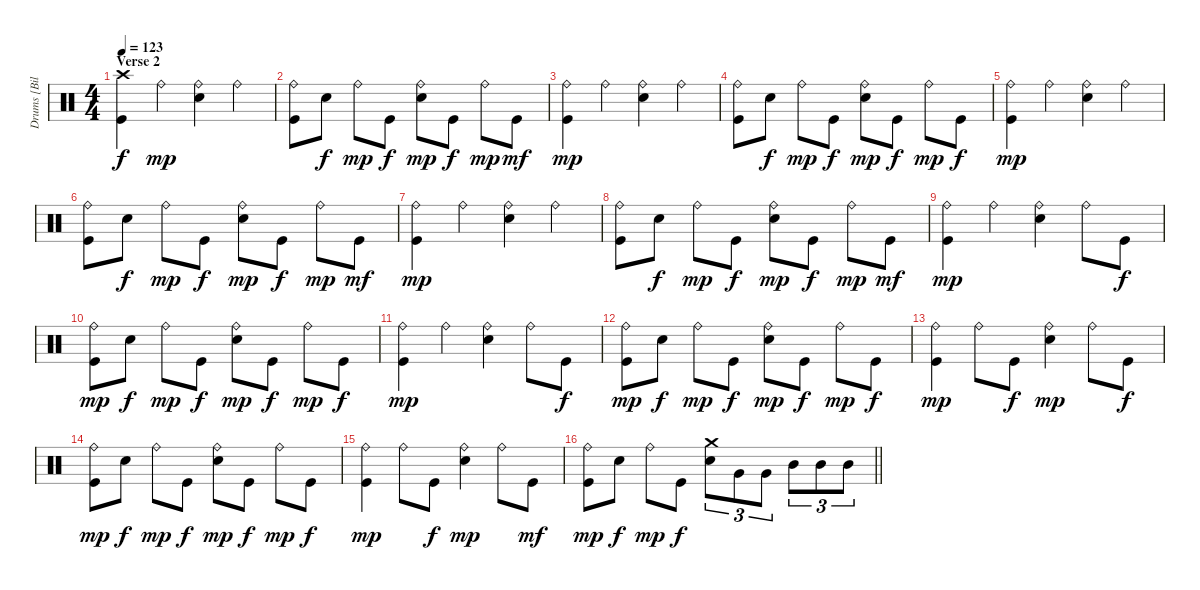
\track ("Drums [Bill Ward]" "Drums [Bil") {instrument percussion}
\staff {score}
\articulation defaults
\ts (4 4)
\section ("" "Verse 2")
\tempo 123
\clef neutral
\ks c
("Crash high (hit)" "Kick (hit)").4{dy f} "Ride (bell)".4{dy mp} ("Ride (bell)" "Electric Snare (hit)").4 "Ride (bell)".4 |
("Ride (bell)" "Kick (hit)").8 "Electric Snare (hit)".8{dy f} "Ride (bell)".8{dy mp} "Kick (hit)".8{dy f} ("Ride (bell)" "Electric Snare (hit)").8{dy mp} "Kick (hit)".8{dy f} "Ride (bell)".8{dy mp} "Kick (hit)".8{dy mf} |
("Ride (bell)" "Kick (hit)").4{dy mp} "Ride (bell)".4 ("Ride (bell)" "Electric Snare (hit)").4 "Ride (bell)".4 |
("Ride (bell)" "Kick (hit)").8 "Electric Snare (hit)".8{dy f} "Ride (bell)".8{dy mp} "Kick (hit)".8{dy f} ("Ride (bell)" "Electric Snare (hit)").8{dy mp} "Kick (hit)".8{dy f} "Ride (bell)".8{dy mp} "Kick (hit)".8{dy f} |
("Ride (bell)" "Kick (hit)").4{dy mp} "Ride (bell)".4 ("Ride (bell)" "Electric Snare (hit)").4 "Ride (bell)".4 |
("Ride (bell)" "Kick (hit)").8 "Electric Snare (hit)".8{dy f} "Ride (bell)".8{dy mp} "Kick (hit)".8{dy f} ("Ride (bell)" "Electric Snare (hit)").8{dy mp} "Kick (hit)".8{dy f} "Ride (bell)".8{dy mp} "Kick (hit)".8{dy mf} |
("Ride (bell)" "Kick (hit)").4{dy mp} "Ride (bell)".4 ("Ride (bell)" "Electric Snare (hit)").4 "Ride (bell)".4 |
("Ride (bell)" "Kick (hit)").8 "Electric Snare (hit)".8{dy f} "Ride (bell)".8{dy mp} "Kick (hit)".8{dy f} ("Ride (bell)" "Electric Snare (hit)").8{dy mp} "Kick (hit)".8{dy f} "Ride (bell)".8{dy mp} "Kick (hit)".8{dy mf} |
("Ride (bell)" "Kick (hit)").4{dy mp} "Ride (bell)".4 ("Ride (bell)" "Electric Snare (hit)").4 "Ride (bell)".8 "Kick (hit)".8{dy f} |
("Ride (bell)" "Kick (hit)").8{dy mp} "Electric Snare (hit)".8{dy f} "Ride (bell)".8{dy mp} "Kick (hit)".8{dy f} ("Ride (bell)" "Electric Snare (hit)").8{dy mp} "Kick (hit)".8{dy f} "Ride (bell)".8{dy mp} "Kick (hit)".8{dy f} |
("Ride (bell)" "Kick (hit)").4{dy mp} "Ride (bell)".4 ("Ride (bell)" "Electric Snare (hit)").4 "Ride (bell)".8 "Kick (hit)".8{dy f} |
("Ride (bell)" "Kick (hit)").8{dy mp} "Electric Snare (hit)".8{dy f} "Ride (bell)".8{dy mp} "Kick (hit)".8{dy f} ("Ride (bell)" "Electric Snare (hit)").8{dy mp} "Kick (hit)".8{dy f} "Ride (bell)".8{dy mp} "Kick (hit)".8{dy f} |
("Ride (bell)" "Kick (hit)").4{dy mp} "Ride (bell)".8 "Kick (hit)".8{dy f} ("Ride (bell)" "Electric Snare (hit)").4{dy mp} "Ride (bell)".8 "Kick (hit)".8{dy f} |
("Ride (bell)" "Kick (hit)").8{dy mp} "Electric Snare (hit)".8{dy f} "Ride (bell)".8{dy mp} "Kick (hit)".8{dy f} ("Ride (bell)" "Electric Snare (hit)").8{dy mp} "Kick (hit)".8{dy f} "Ride (bell)".8{dy mp} "Kick (hit)".8{dy f} |
("Ride (bell)" "Kick (hit)").4{dy mp} "Ride (bell)".8 "Kick (hit)".8{dy f} ("Ride (bell)" "Electric Snare (hit)").4{dy mp} "Ride (bell)".8 "Kick (hit)".8{dy mf} |
\barLineRight lightlight
("Ride (bell)" "Kick (hit)").8{dy mp} "Electric Snare (hit)".8{dy f} "Ride (bell)".8{dy mp} "Kick (hit)".8{dy f} ("Crash medium (hit)" "Electric Snare (hit)").8{tu (3 2)} "Very Low Tom (hit)".8{tu (3 2)} "Very Low Tom (hit)".8{tu (3 2)} "Mid Tom (hit)".8{tu (3 2)} "Mid Tom (hit)".8{tu (3 2)} "Mid Tom (hit)".8{tu (3 2)}
